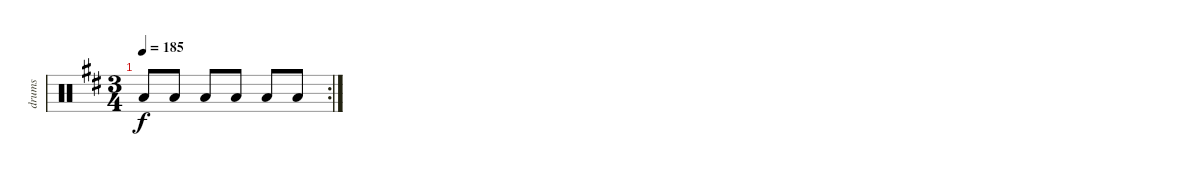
\track ("drums" "drums") {instrument percussion}
\staff {score}
\articulation defaults
\rc 2
\ts (3 4)
\tempo 185
\clef neutral
\ks d "Low Tom (hit)".8{dy f} "Low Tom (hit)".8 "Low Tom (hit)".8 "Low Tom (hit)".8 "Low Tom (hit)".8 "Low Tom (hit)".8
